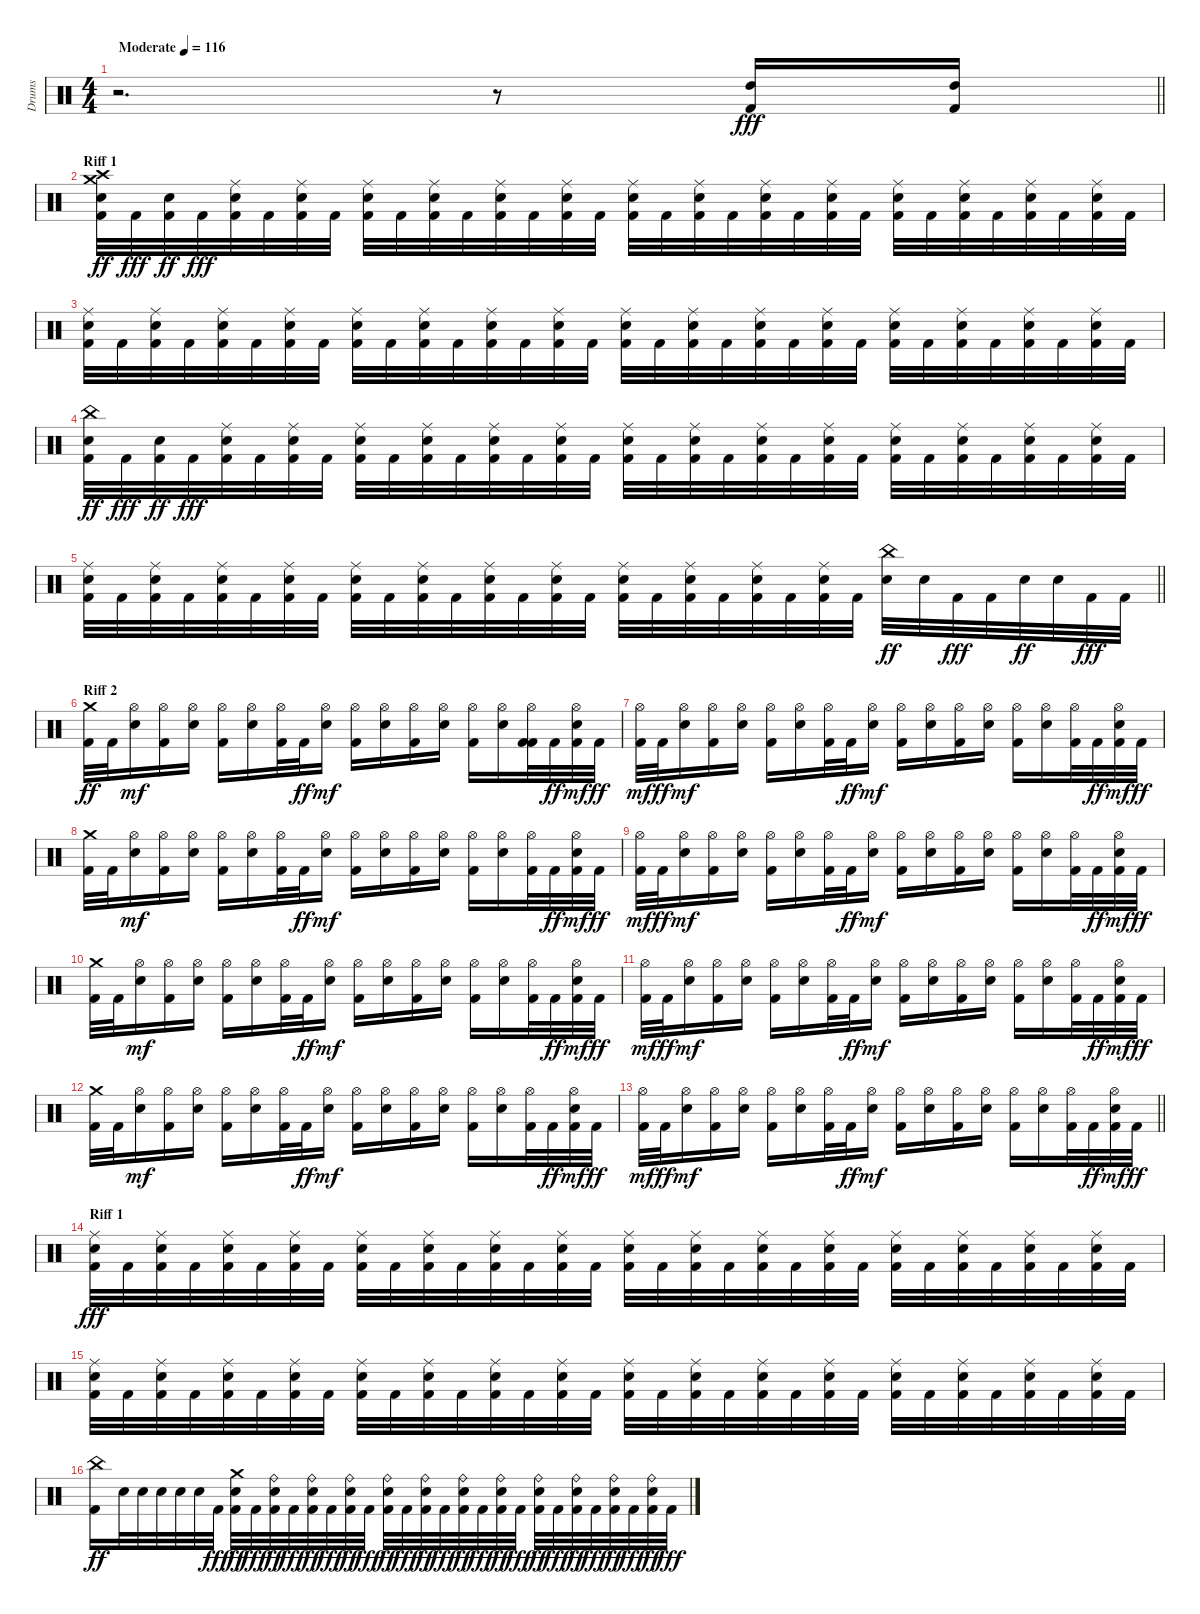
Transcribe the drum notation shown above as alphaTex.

\track ("Drums" "Drums") {instrument percussion}
\staff {score}
\articulation defaults
\ts (4 4)
\tempo (116 "Moderate")
\clef neutral
\barLineRight lightlight
\ks c
r.2{d dy fff} r.8 ("Kick (hit) 2" "High Tom (hit)").16 ("Kick (hit) 2" "High Tom (hit)").16 |
\section ("" "Riff 1")
("Kick (hit) 2" "Snare (hit) 2" "Crash high (hit)" "Crash medium (hit)").32{dy ff} "Kick (hit) 2".32{dy fff} ("Kick (hit) 2" "Snare (hit) 2").32{dy ff} "Kick (hit) 2".32{dy fff} ("Kick (hit) 2" "Snare (hit) 2" "Ride (middle)").32 "Kick (hit) 2".32 ("Kick (hit) 2" "Snare (hit) 2" "Ride (middle)").32 "Kick (hit) 2".32 ("Kick (hit) 2" "Snare (hit) 2" "Ride (middle)").32 "Kick (hit) 2".32 ("Kick (hit) 2" "Snare (hit) 2" "Ride (middle)").32 "Kick (hit) 2".32 ("Kick (hit) 2" "Snare (hit) 2" "Ride (middle)").32 "Kick (hit) 2".32 ("Kick (hit) 2" "Snare (hit) 2" "Ride (middle)").32 "Kick (hit) 2".32 ("Kick (hit) 2" "Snare (hit) 2" "Ride (middle)").32 "Kick (hit) 2".32 ("Kick (hit) 2" "Snare (hit) 2" "Ride (middle)").32 "Kick (hit) 2".32 ("Kick (hit) 2" "Snare (hit) 2" "Ride (middle)").32 "Kick (hit) 2".32 ("Kick (hit) 2" "Snare (hit) 2" "Ride (middle)").32 "Kick (hit) 2".32 ("Kick (hit) 2" "Snare (hit) 2" "Ride (middle)").32 "Kick (hit) 2".32 ("Kick (hit) 2" "Snare (hit) 2" "Ride (middle)").32 "Kick (hit) 2".32 ("Kick (hit) 2" "Snare (hit) 2" "Ride (middle)").32 "Kick (hit) 2".32 ("Kick (hit) 2" "Snare (hit) 2" "Ride (middle)").32 "Kick (hit) 2".32 |
("Kick (hit) 2" "Snare (hit) 2" "Ride (middle)").32 "Kick (hit) 2".32 ("Kick (hit) 2" "Snare (hit) 2" "Ride (middle)").32 "Kick (hit) 2".32 ("Kick (hit) 2" "Snare (hit) 2" "Ride (middle)").32 "Kick (hit) 2".32 ("Kick (hit) 2" "Snare (hit) 2" "Ride (middle)").32 "Kick (hit) 2".32 ("Kick (hit) 2" "Snare (hit) 2" "Ride (middle)").32 "Kick (hit) 2".32 ("Kick (hit) 2" "Snare (hit) 2" "Ride (middle)").32 "Kick (hit) 2".32 ("Kick (hit) 2" "Snare (hit) 2" "Ride (middle)").32 "Kick (hit) 2".32 ("Kick (hit) 2" "Snare (hit) 2" "Ride (middle)").32 "Kick (hit) 2".32 ("Kick (hit) 2" "Snare (hit) 2" "Ride (middle)").32 "Kick (hit) 2".32 ("Kick (hit) 2" "Snare (hit) 2" "Ride (middle)").32 "Kick (hit) 2".32 ("Kick (hit) 2" "Snare (hit) 2" "Ride (middle)").32 "Kick (hit) 2".32 ("Kick (hit) 2" "Snare (hit) 2" "Ride (middle)").32 "Kick (hit) 2".32 ("Kick (hit) 2" "Snare (hit) 2" "Ride (middle)").32 "Kick (hit) 2".32 ("Kick (hit) 2" "Snare (hit) 2" "Ride (middle)").32 "Kick (hit) 2".32 ("Kick (hit) 2" "Snare (hit) 2" "Ride (middle)").32 "Kick (hit) 2".32 ("Kick (hit) 2" "Snare (hit) 2" "Ride (middle)").32 "Kick (hit) 2".32 |
("Kick (hit) 2" "Snare (hit) 2" "China (hit)").32{dy ff} "Kick (hit) 2".32{dy fff} ("Kick (hit) 2" "Snare (hit) 2").32{dy ff} "Kick (hit) 2".32{dy fff} ("Kick (hit) 2" "Snare (hit) 2" "Ride (middle)").32 "Kick (hit) 2".32 ("Kick (hit) 2" "Snare (hit) 2" "Ride (middle)").32 "Kick (hit) 2".32 ("Kick (hit) 2" "Snare (hit) 2" "Ride (middle)").32 "Kick (hit) 2".32 ("Kick (hit) 2" "Snare (hit) 2" "Ride (middle)").32 "Kick (hit) 2".32 ("Kick (hit) 2" "Snare (hit) 2" "Ride (middle)").32 "Kick (hit) 2".32 ("Kick (hit) 2" "Snare (hit) 2" "Ride (middle)").32 "Kick (hit) 2".32 ("Kick (hit) 2" "Snare (hit) 2" "Ride (middle)").32 "Kick (hit) 2".32 ("Kick (hit) 2" "Snare (hit) 2" "Ride (middle)").32 "Kick (hit) 2".32 ("Kick (hit) 2" "Snare (hit) 2" "Ride (middle)").32 "Kick (hit) 2".32 ("Kick (hit) 2" "Snare (hit) 2" "Ride (middle)").32 "Kick (hit) 2".32 ("Kick (hit) 2" "Snare (hit) 2" "Ride (middle)").32 "Kick (hit) 2".32 ("Kick (hit) 2" "Snare (hit) 2" "Ride (middle)").32 "Kick (hit) 2".32 ("Kick (hit) 2" "Snare (hit) 2" "Ride (middle)").32 "Kick (hit) 2".32 ("Kick (hit) 2" "Snare (hit) 2" "Ride (middle)").32 "Kick (hit) 2".32 |
\barLineRight lightlight
("Kick (hit) 2" "Snare (hit) 2" "Ride (middle)").32 "Kick (hit) 2".32 ("Kick (hit) 2" "Snare (hit) 2" "Ride (middle)").32 "Kick (hit) 2".32 ("Kick (hit) 2" "Snare (hit) 2" "Ride (middle)").32 "Kick (hit) 2".32 ("Kick (hit) 2" "Snare (hit) 2" "Ride (middle)").32 "Kick (hit) 2".32 ("Kick (hit) 2" "Snare (hit) 2" "Ride (middle)").32 "Kick (hit) 2".32 ("Kick (hit) 2" "Snare (hit) 2" "Ride (middle)").32 "Kick (hit) 2".32 ("Kick (hit) 2" "Snare (hit) 2" "Ride (middle)").32 "Kick (hit) 2".32 ("Kick (hit) 2" "Snare (hit) 2" "Ride (middle)").32 "Kick (hit) 2".32 ("Kick (hit) 2" "Snare (hit) 2" "Ride (middle)").32 "Kick (hit) 2".32 ("Kick (hit) 2" "Snare (hit) 2" "Ride (middle)").32 "Kick (hit) 2".32 ("Kick (hit) 2" "Snare (hit) 2" "Ride (middle)").32 "Kick (hit) 2".32 ("Kick (hit) 2" "Snare (hit) 2" "Ride (middle)").32 "Kick (hit) 2".32 ("Snare (hit) 2" "China (hit)").32{dy ff} "Snare (hit) 2".32 "Kick (hit) 2".32{dy fff} "Kick (hit) 2".32 "Snare (hit) 2".32{dy ff} "Snare (hit) 2".32 "Kick (hit) 2".32{dy fff} "Kick (hit) 2".32 |
\section ("" "Riff 2")
("Kick (hit) 2" "Crash medium (hit)").32{dy ff} "Kick (hit) 2".32 ("Snare (hit) 2" "Hi-Hat (open)").16{dy mf} ("Kick (hit) 2" "Hi-Hat (open)").16 ("Snare (hit) 2" "Hi-Hat (open)").16 ("Kick (hit) 2" "Hi-Hat (open)").16 ("Snare (hit) 2" "Hi-Hat (open)").16 ("Kick (hit) 2" "Hi-Hat (open)").32 "Kick (hit) 2".32{dy ff} ("Snare (hit) 2" "Hi-Hat (open)").16{dy mf} ("Kick (hit) 2" "Hi-Hat (open)").16 ("Snare (hit) 2" "Hi-Hat (open)").16 ("Kick (hit) 2" "Hi-Hat (open)").16 ("Snare (hit) 2" "Hi-Hat (open)").16 ("Kick (hit) 2" "Hi-Hat (open)").16 ("Snare (hit) 2" "Hi-Hat (open)").16 ("Kick (hit) 2" "Kick (hit) 2" "Hi-Hat (open)").32 "Kick (hit) 2".32{dy ff} ("Kick (hit) 2" "Snare (hit) 2" "Hi-Hat (open)").32{dy mf} "Kick (hit) 2".32{dy ff} |
("Kick (hit) 2" "Hi-Hat (open)").32{dy mf} "Kick (hit) 2".32{dy ff} ("Snare (hit) 2" "Hi-Hat (open)").16{dy mf} ("Kick (hit) 2" "Hi-Hat (open)").16 ("Snare (hit) 2" "Hi-Hat (open)").16 ("Kick (hit) 2" "Hi-Hat (open)").16 ("Snare (hit) 2" "Hi-Hat (open)").16 ("Kick (hit) 2" "Hi-Hat (open)").32 "Kick (hit) 2".32{dy ff} ("Snare (hit) 2" "Hi-Hat (open)").16{dy mf} ("Kick (hit) 2" "Hi-Hat (open)").16 ("Snare (hit) 2" "Hi-Hat (open)").16 ("Kick (hit) 2" "Hi-Hat (open)").16 ("Snare (hit) 2" "Hi-Hat (open)").16 ("Kick (hit) 2" "Hi-Hat (open)").16 ("Snare (hit) 2" "Hi-Hat (open)").16 ("Kick (hit) 2" "Hi-Hat (open)").32 "Kick (hit) 2".32{dy ff} ("Kick (hit) 2" "Snare (hit) 2" "Hi-Hat (open)").32{dy mf} "Kick (hit) 2".32{dy ff} |
("Kick (hit) 2" "Crash medium (hit)").32 "Kick (hit) 2".32 ("Snare (hit) 2" "Hi-Hat (open)").16{dy mf} ("Kick (hit) 2" "Hi-Hat (open)").16 ("Snare (hit) 2" "Hi-Hat (open)").16 ("Kick (hit) 2" "Hi-Hat (open)").16 ("Snare (hit) 2" "Hi-Hat (open)").16 ("Kick (hit) 2" "Hi-Hat (open)").32 "Kick (hit) 2".32{dy ff} ("Snare (hit) 2" "Hi-Hat (open)").16{dy mf} ("Kick (hit) 2" "Hi-Hat (open)").16 ("Snare (hit) 2" "Hi-Hat (open)").16 ("Kick (hit) 2" "Hi-Hat (open)").16 ("Snare (hit) 2" "Hi-Hat (open)").16 ("Kick (hit) 2" "Hi-Hat (open)").16 ("Snare (hit) 2" "Hi-Hat (open)").16 ("Kick (hit) 2" "Hi-Hat (open)").32 "Kick (hit) 2".32{dy ff} ("Kick (hit) 2" "Snare (hit) 2" "Hi-Hat (open)").32{dy mf} "Kick (hit) 2".32{dy ff} |
("Kick (hit) 2" "Hi-Hat (open)").32{dy mf} "Kick (hit) 2".32{dy ff} ("Snare (hit) 2" "Hi-Hat (open)").16{dy mf} ("Kick (hit) 2" "Hi-Hat (open)").16 ("Snare (hit) 2" "Hi-Hat (open)").16 ("Kick (hit) 2" "Hi-Hat (open)").16 ("Snare (hit) 2" "Hi-Hat (open)").16 ("Kick (hit) 2" "Hi-Hat (open)").32 "Kick (hit) 2".32{dy ff} ("Snare (hit) 2" "Hi-Hat (open)").16{dy mf} ("Kick (hit) 2" "Hi-Hat (open)").16 ("Snare (hit) 2" "Hi-Hat (open)").16 ("Kick (hit) 2" "Hi-Hat (open)").16 ("Snare (hit) 2" "Hi-Hat (open)").16 ("Kick (hit) 2" "Hi-Hat (open)").16 ("Snare (hit) 2" "Hi-Hat (open)").16 ("Kick (hit) 2" "Hi-Hat (open)").32 "Kick (hit) 2".32{dy ff} ("Kick (hit) 2" "Snare (hit) 2" "Hi-Hat (open)").32{dy mf} "Kick (hit) 2".32{dy ff} |
("Kick (hit) 2" "Crash medium (hit)").32 "Kick (hit) 2".32 ("Snare (hit) 2" "Hi-Hat (open)").16{dy mf} ("Kick (hit) 2" "Hi-Hat (open)").16 ("Snare (hit) 2" "Hi-Hat (open)").16 ("Kick (hit) 2" "Hi-Hat (open)").16 ("Snare (hit) 2" "Hi-Hat (open)").16 ("Kick (hit) 2" "Hi-Hat (open)").32 "Kick (hit) 2".32{dy ff} ("Snare (hit) 2" "Hi-Hat (open)").16{dy mf} ("Kick (hit) 2" "Hi-Hat (open)").16 ("Snare (hit) 2" "Hi-Hat (open)").16 ("Kick (hit) 2" "Hi-Hat (open)").16 ("Snare (hit) 2" "Hi-Hat (open)").16 ("Kick (hit) 2" "Hi-Hat (open)").16 ("Snare (hit) 2" "Hi-Hat (open)").16 ("Kick (hit) 2" "Hi-Hat (open)").32 "Kick (hit) 2".32{dy ff} ("Kick (hit) 2" "Snare (hit) 2" "Hi-Hat (open)").32{dy mf} "Kick (hit) 2".32{dy ff} |
("Kick (hit) 2" "Hi-Hat (open)").32{dy mf} "Kick (hit) 2".32{dy ff} ("Snare (hit) 2" "Hi-Hat (open)").16{dy mf} ("Kick (hit) 2" "Hi-Hat (open)").16 ("Snare (hit) 2" "Hi-Hat (open)").16 ("Kick (hit) 2" "Hi-Hat (open)").16 ("Snare (hit) 2" "Hi-Hat (open)").16 ("Kick (hit) 2" "Hi-Hat (open)").32 "Kick (hit) 2".32{dy ff} ("Snare (hit) 2" "Hi-Hat (open)").16{dy mf} ("Kick (hit) 2" "Hi-Hat (open)").16 ("Snare (hit) 2" "Hi-Hat (open)").16 ("Kick (hit) 2" "Hi-Hat (open)").16 ("Snare (hit) 2" "Hi-Hat (open)").16 ("Kick (hit) 2" "Hi-Hat (open)").16 ("Snare (hit) 2" "Hi-Hat (open)").16 ("Kick (hit) 2" "Hi-Hat (open)").32 "Kick (hit) 2".32{dy ff} ("Kick (hit) 2" "Snare (hit) 2" "Hi-Hat (open)").32{dy mf} "Kick (hit) 2".32{dy ff} |
("Kick (hit) 2" "Crash medium (hit)").32 "Kick (hit) 2".32 ("Snare (hit) 2" "Hi-Hat (open)").16{dy mf} ("Kick (hit) 2" "Hi-Hat (open)").16 ("Snare (hit) 2" "Hi-Hat (open)").16 ("Kick (hit) 2" "Hi-Hat (open)").16 ("Snare (hit) 2" "Hi-Hat (open)").16 ("Kick (hit) 2" "Hi-Hat (open)").32 "Kick (hit) 2".32{dy ff} ("Snare (hit) 2" "Hi-Hat (open)").16{dy mf} ("Kick (hit) 2" "Hi-Hat (open)").16 ("Snare (hit) 2" "Hi-Hat (open)").16 ("Kick (hit) 2" "Hi-Hat (open)").16 ("Snare (hit) 2" "Hi-Hat (open)").16 ("Kick (hit) 2" "Hi-Hat (open)").16 ("Snare (hit) 2" "Hi-Hat (open)").16 ("Kick (hit) 2" "Hi-Hat (open)").32 "Kick (hit) 2".32{dy ff} ("Kick (hit) 2" "Snare (hit) 2" "Hi-Hat (open)").32{dy mf} "Kick (hit) 2".32{dy ff} |
\barLineRight lightlight
("Kick (hit) 2" "Hi-Hat (open)").32{dy mf} "Kick (hit) 2".32{dy ff} ("Snare (hit) 2" "Hi-Hat (open)").16{dy mf} ("Kick (hit) 2" "Hi-Hat (open)").16 ("Snare (hit) 2" "Hi-Hat (open)").16 ("Kick (hit) 2" "Hi-Hat (open)").16 ("Snare (hit) 2" "Hi-Hat (open)").16 ("Kick (hit) 2" "Hi-Hat (open)").32 "Kick (hit) 2".32{dy ff} ("Snare (hit) 2" "Hi-Hat (open)").16{dy mf} ("Kick (hit) 2" "Hi-Hat (open)").16 ("Snare (hit) 2" "Hi-Hat (open)").16 ("Kick (hit) 2" "Hi-Hat (open)").16 ("Snare (hit) 2" "Hi-Hat (open)").16 ("Kick (hit) 2" "Hi-Hat (open)").16 ("Snare (hit) 2" "Hi-Hat (open)").16 ("Kick (hit) 2" "Hi-Hat (open)").32 "Kick (hit) 2".32{dy ff} ("Kick (hit) 2" "Snare (hit) 2" "Hi-Hat (open)").32{dy mf} "Kick (hit) 2".32{dy ff} |
\section ("" "Riff 1")
("Kick (hit) 2" "Snare (hit) 2" "Ride (middle)").32{dy fff} "Kick (hit) 2".32 ("Kick (hit) 2" "Snare (hit) 2" "Ride (middle)").32 "Kick (hit) 2".32 ("Kick (hit) 2" "Snare (hit) 2" "Ride (middle)").32 "Kick (hit) 2".32 ("Kick (hit) 2" "Snare (hit) 2" "Ride (middle)").32 "Kick (hit) 2".32 ("Kick (hit) 2" "Snare (hit) 2" "Ride (middle)").32 "Kick (hit) 2".32 ("Kick (hit) 2" "Snare (hit) 2" "Ride (middle)").32 "Kick (hit) 2".32 ("Kick (hit) 2" "Snare (hit) 2" "Ride (middle)").32 "Kick (hit) 2".32 ("Kick (hit) 2" "Snare (hit) 2" "Ride (middle)").32 "Kick (hit) 2".32 ("Kick (hit) 2" "Snare (hit) 2" "Ride (middle)").32 "Kick (hit) 2".32 ("Kick (hit) 2" "Snare (hit) 2" "Ride (middle)").32 "Kick (hit) 2".32 ("Kick (hit) 2" "Snare (hit) 2" "Ride (middle)").32 "Kick (hit) 2".32 ("Kick (hit) 2" "Snare (hit) 2" "Ride (middle)").32 "Kick (hit) 2".32 ("Kick (hit) 2" "Snare (hit) 2" "Ride (middle)").32 "Kick (hit) 2".32 ("Kick (hit) 2" "Snare (hit) 2" "Ride (middle)").32 "Kick (hit) 2".32 ("Kick (hit) 2" "Snare (hit) 2" "Ride (middle)").32 "Kick (hit) 2".32 ("Kick (hit) 2" "Snare (hit) 2" "Ride (middle)").32 "Kick (hit) 2".32 |
("Kick (hit) 2" "Snare (hit) 2" "Ride (middle)").32 "Kick (hit) 2".32 ("Kick (hit) 2" "Snare (hit) 2" "Ride (middle)").32 "Kick (hit) 2".32 ("Kick (hit) 2" "Snare (hit) 2" "Ride (middle)").32 "Kick (hit) 2".32 ("Kick (hit) 2" "Snare (hit) 2" "Ride (middle)").32 "Kick (hit) 2".32 ("Kick (hit) 2" "Snare (hit) 2" "Ride (middle)").32 "Kick (hit) 2".32 ("Kick (hit) 2" "Snare (hit) 2" "Ride (middle)").32 "Kick (hit) 2".32 ("Kick (hit) 2" "Snare (hit) 2" "Ride (middle)").32 "Kick (hit) 2".32 ("Kick (hit) 2" "Snare (hit) 2" "Ride (middle)").32 "Kick (hit) 2".32 ("Kick (hit) 2" "Snare (hit) 2" "Ride (middle)").32 "Kick (hit) 2".32 ("Kick (hit) 2" "Snare (hit) 2" "Ride (middle)").32 "Kick (hit) 2".32 ("Kick (hit) 2" "Snare (hit) 2" "Ride (middle)").32 "Kick (hit) 2".32 ("Kick (hit) 2" "Snare (hit) 2" "Ride (middle)").32 "Kick (hit) 2".32 ("Kick (hit) 2" "Snare (hit) 2" "Ride (middle)").32 "Kick (hit) 2".32 ("Kick (hit) 2" "Snare (hit) 2" "Ride (middle)").32 "Kick (hit) 2".32 ("Kick (hit) 2" "Snare (hit) 2" "Ride (middle)").32 "Kick (hit) 2".32 ("Kick (hit) 2" "Snare (hit) 2" "Ride (middle)").32 "Kick (hit) 2".32 |
("Kick (hit) 2" "China (hit)").16{dy ff} "Snare (hit) 2".32 "Snare (hit) 2".32 "Snare (hit) 2".32 "Snare (hit) 2".32 "Snare (hit) 2".32 "Kick (hit) 2".32{dy fff} ("Kick (hit) 2" "Snare (hit) 2" "Crash medium (hit)").32{dy ff} "Kick (hit) 2".32{dy fff} ("Kick (hit) 2" "Snare (hit) 2" "Ride (bell)").32{dy ff} "Kick (hit) 2".32{dy fff} ("Kick (hit) 2" "Snare (hit) 2" "Ride (bell)").32{dy ff} "Kick (hit) 2".32{dy fff} ("Kick (hit) 2" "Snare (hit) 2" "Ride (bell)").32{dy ff} "Kick (hit) 2".32{dy fff} ("Kick (hit) 2" "Snare (hit) 2" "Ride (bell)").32{dy ff} "Kick (hit) 2".32{dy fff} ("Kick (hit) 2" "Snare (hit) 2" "Ride (bell)").32{dy ff} "Kick (hit) 2".32{dy fff} ("Kick (hit) 2" "Snare (hit) 2" "Ride (bell)").32{dy ff} "Kick (hit) 2".32{dy fff} ("Kick (hit) 2" "Snare (hit) 2" "Ride (bell)").32{dy ff} "Kick (hit) 2".32{dy fff} ("Kick (hit) 2" "Snare (hit) 2" "Ride (bell)").32{dy ff} "Kick (hit) 2".32{dy fff} ("Kick (hit) 2" "Snare (hit) 2" "Ride (bell)").32{dy ff} "Kick (hit) 2".32{dy fff} ("Kick (hit) 2" "Snare (hit) 2" "Ride (bell)").32{dy ff} "Kick (hit) 2".32{dy fff} ("Kick (hit) 2" "Snare (hit) 2" "Ride (bell)").32{dy ff} "Kick (hit) 2".32{dy fff}
